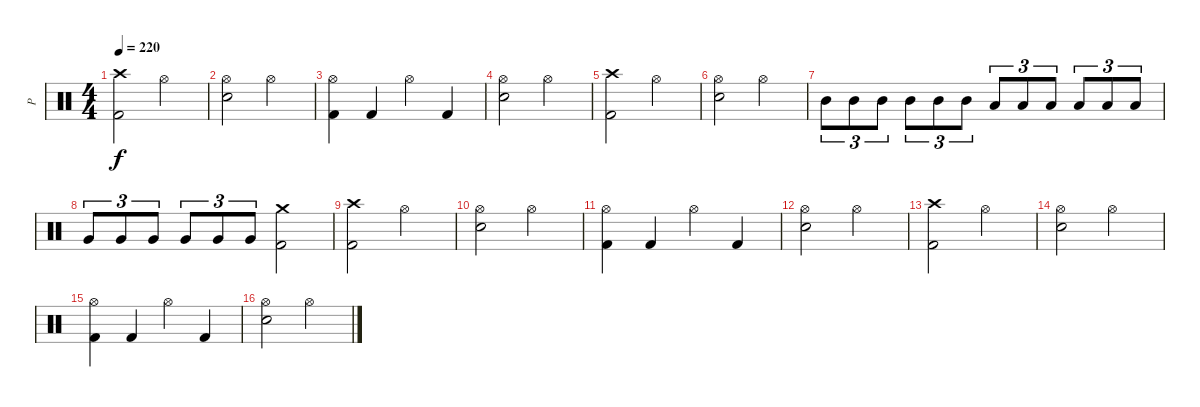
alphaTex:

\track ("P" "P") {instrument percussion}
\staff {score}
\articulation defaults
\ts (4 4)
\tempo 220
\clef neutral
\ks c
("Crash high (hit)" "Kick (hit) 2").2{dy f} "Hi-Hat (open)".2 |
("Hi-Hat (open)" "Electric Snare (hit)").2 "Hi-Hat (open)".2 |
("Hi-Hat (open)" "Kick (hit) 2").4 "Kick (hit) 2".4 "Hi-Hat (open)".4 "Kick (hit) 2".4 |
("Hi-Hat (open)" "Electric Snare (hit)").2 "Hi-Hat (open)".2 |
("Crash high (hit)" "Kick (hit) 2").2 "Hi-Hat (open)".2 |
("Hi-Hat (open)" "Electric Snare (hit)").2 "Hi-Hat (open)".2 |
"Mid Tom (hit)".8{tu (3 2)} "Mid Tom (hit)".8{tu (3 2)} "Mid Tom (hit)".8{tu (3 2)} "Mid Tom (hit)".8{tu (3 2)} "Mid Tom (hit)".8{tu (3 2)} "Mid Tom (hit)".8{tu (3 2)} "Low Tom (hit)".8{tu (3 2)} "Low Tom (hit)".8{tu (3 2)} "Low Tom (hit)".8{tu (3 2)} "Low Tom (hit)".8{tu (3 2)} "Low Tom (hit)".8{tu (3 2)} "Low Tom (hit)".8{tu (3 2)} |
"Very Low Tom (hit)".8{tu (3 2)} "Very Low Tom (hit)".8{tu (3 2)} "Very Low Tom (hit)".8{tu (3 2)} "Very Low Tom (hit)".8{tu (3 2)} "Very Low Tom (hit)".8{tu (3 2)} "Very Low Tom (hit)".8{tu (3 2)} ("Crash medium (hit)" "Kick (hit) 2").2 |
("Crash high (hit)" "Kick (hit) 2").2 "Hi-Hat (open)".2 |
("Hi-Hat (open)" "Electric Snare (hit)").2 "Hi-Hat (open)".2 |
("Hi-Hat (open)" "Kick (hit) 2").4 "Kick (hit) 2".4 "Hi-Hat (open)".4 "Kick (hit) 2".4 |
("Hi-Hat (open)" "Electric Snare (hit)").2 "Hi-Hat (open)".2 |
("Crash high (hit)" "Kick (hit) 2").2 "Hi-Hat (open)".2 |
("Hi-Hat (open)" "Electric Snare (hit)").2 "Hi-Hat (open)".2 |
("Hi-Hat (open)" "Kick (hit) 2").4 "Kick (hit) 2".4 "Hi-Hat (open)".4 "Kick (hit) 2".4 |
("Hi-Hat (open)" "Electric Snare (hit)").2 "Hi-Hat (open)".2
